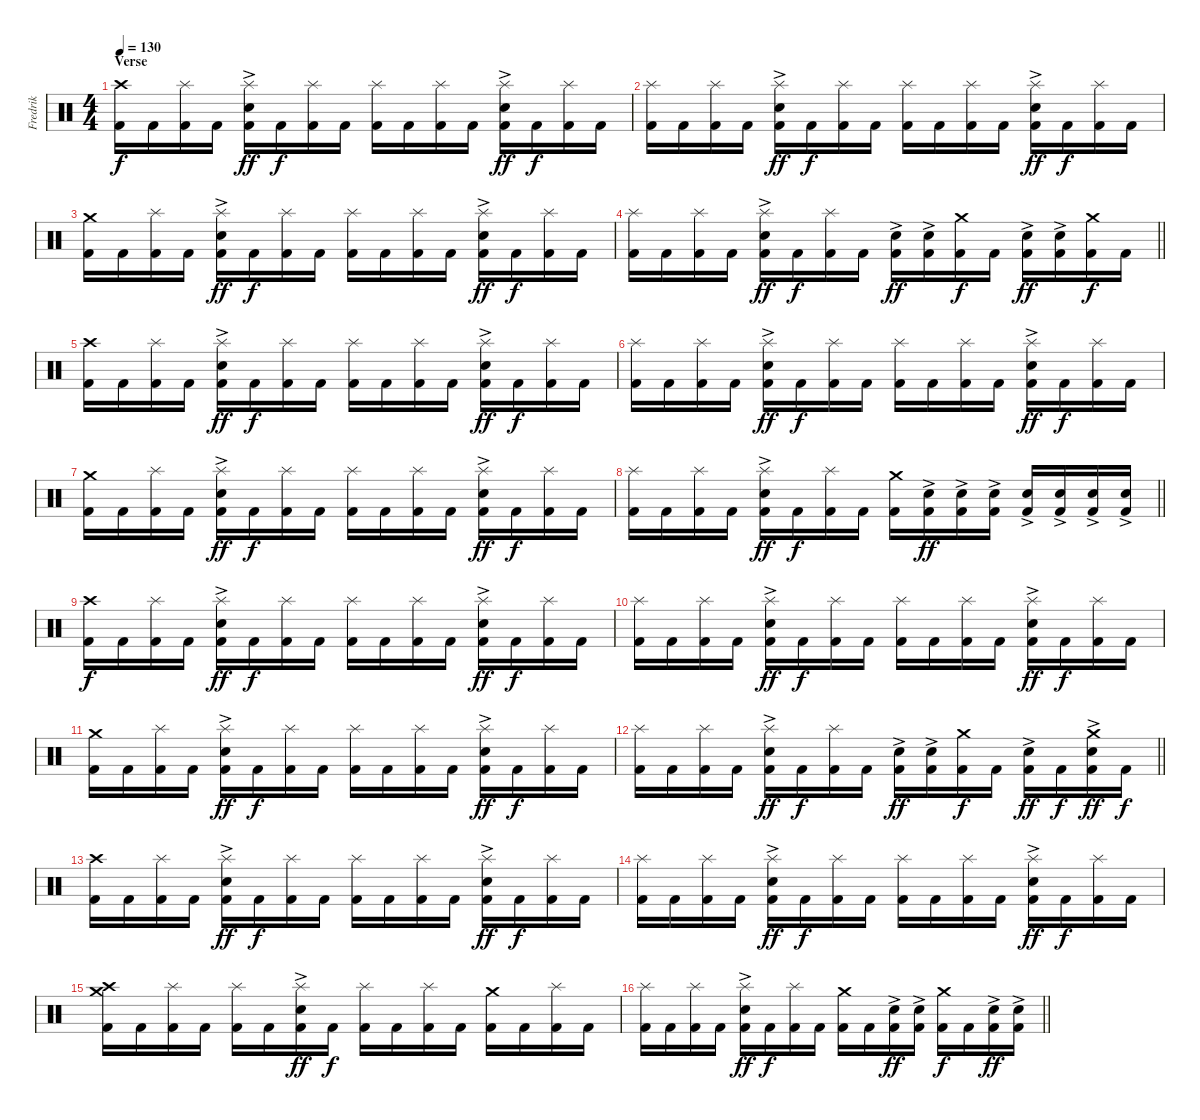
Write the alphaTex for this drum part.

\track ("Fredrik" "Fredrik") {instrument percussion}
\staff {score}
\articulation defaults
\ts (4 4)
\section ("" "Verse")
\tempo 130
\clef neutral
\ks c
("Kick (hit) 2" "Crash high (hit)").16{dy f} "Kick (hit) 2".16 ("Kick (hit) 2" "Splash (hit)").16 "Kick (hit) 2".16 ("Kick (hit) 2" "Snare (hit) 2"{ac} "Splash (hit)").16{dy ff} "Kick (hit) 2".16{dy f} ("Kick (hit) 2" "Splash (hit)").16 "Kick (hit) 2".16 ("Kick (hit) 2" "Splash (hit)").16 "Kick (hit) 2".16 ("Kick (hit) 2" "Splash (hit)").16 "Kick (hit) 2".16 ("Kick (hit) 2" "Snare (hit) 2"{ac} "Splash (hit)").16{dy ff} "Kick (hit) 2".16{dy f} ("Kick (hit) 2" "Splash (hit)").16 "Kick (hit) 2".16 |
("Kick (hit) 2" "Splash (hit)").16 "Kick (hit) 2".16 ("Kick (hit) 2" "Splash (hit)").16 "Kick (hit) 2".16 ("Kick (hit) 2" "Snare (hit) 2"{ac} "Splash (hit)").16{dy ff} "Kick (hit) 2".16{dy f} ("Kick (hit) 2" "Splash (hit)").16 "Kick (hit) 2".16 ("Kick (hit) 2" "Splash (hit)").16 "Kick (hit) 2".16 ("Kick (hit) 2" "Splash (hit)").16 "Kick (hit) 2".16 ("Kick (hit) 2" "Snare (hit) 2"{ac} "Splash (hit)").16{dy ff} "Kick (hit) 2".16{dy f} ("Kick (hit) 2" "Splash (hit)").16 "Kick (hit) 2".16 |
("Kick (hit) 2" "Crash medium (hit)").16 "Kick (hit) 2".16 ("Kick (hit) 2" "Splash (hit)").16 "Kick (hit) 2".16 ("Kick (hit) 2" "Snare (hit) 2"{ac} "Splash (hit)").16{dy ff} "Kick (hit) 2".16{dy f} ("Kick (hit) 2" "Splash (hit)").16 "Kick (hit) 2".16 ("Kick (hit) 2" "Splash (hit)").16 "Kick (hit) 2".16 ("Kick (hit) 2" "Splash (hit)").16 "Kick (hit) 2".16 ("Kick (hit) 2" "Snare (hit) 2"{ac} "Splash (hit)").16{dy ff} "Kick (hit) 2".16{dy f} ("Kick (hit) 2" "Splash (hit)").16 "Kick (hit) 2".16 |
\barLineRight lightlight
("Kick (hit) 2" "Splash (hit)").16 "Kick (hit) 2".16 ("Kick (hit) 2" "Splash (hit)").16 "Kick (hit) 2".16 ("Kick (hit) 2" "Snare (hit) 2"{ac} "Splash (hit)").16{dy ff} "Kick (hit) 2".16{dy f} ("Kick (hit) 2" "Splash (hit)").16 "Kick (hit) 2".16 ("Kick (hit) 2" "Snare (hit) 2"{ac}).16{dy ff} ("Kick (hit) 2" "Snare (hit) 2"{ac}).16 ("Kick (hit) 2" "Crash medium (hit)").16{dy f} "Kick (hit) 2".16 ("Kick (hit) 2" "Snare (hit) 2"{ac}).16{dy ff} ("Kick (hit) 2" "Snare (hit) 2"{ac}).16 ("Kick (hit) 2" "Crash medium (hit)").16{dy f} "Kick (hit) 2".16 |
\section ("" "")
("Kick (hit) 2" "Crash high (hit)").16 "Kick (hit) 2".16 ("Kick (hit) 2" "Splash (hit)").16 "Kick (hit) 2".16 ("Kick (hit) 2" "Snare (hit) 2"{ac} "Splash (hit)").16{dy ff} "Kick (hit) 2".16{dy f} ("Kick (hit) 2" "Splash (hit)").16 "Kick (hit) 2".16 ("Kick (hit) 2" "Splash (hit)").16 "Kick (hit) 2".16 ("Kick (hit) 2" "Splash (hit)").16 "Kick (hit) 2".16 ("Kick (hit) 2" "Snare (hit) 2"{ac} "Splash (hit)").16{dy ff} "Kick (hit) 2".16{dy f} ("Kick (hit) 2" "Splash (hit)").16 "Kick (hit) 2".16 |
("Kick (hit) 2" "Splash (hit)").16 "Kick (hit) 2".16 ("Kick (hit) 2" "Splash (hit)").16 "Kick (hit) 2".16 ("Kick (hit) 2" "Snare (hit) 2"{ac} "Splash (hit)").16{dy ff} "Kick (hit) 2".16{dy f} ("Kick (hit) 2" "Splash (hit)").16 "Kick (hit) 2".16 ("Kick (hit) 2" "Splash (hit)").16 "Kick (hit) 2".16 ("Kick (hit) 2" "Splash (hit)").16 "Kick (hit) 2".16 ("Kick (hit) 2" "Snare (hit) 2"{ac} "Splash (hit)").16{dy ff} "Kick (hit) 2".16{dy f} ("Kick (hit) 2" "Splash (hit)").16 "Kick (hit) 2".16 |
("Kick (hit) 2" "Crash medium (hit)").16 "Kick (hit) 2".16 ("Kick (hit) 2" "Splash (hit)").16 "Kick (hit) 2".16 ("Kick (hit) 2" "Snare (hit) 2"{ac} "Splash (hit)").16{dy ff} "Kick (hit) 2".16{dy f} ("Kick (hit) 2" "Splash (hit)").16 "Kick (hit) 2".16 ("Kick (hit) 2" "Splash (hit)").16 "Kick (hit) 2".16 ("Kick (hit) 2" "Splash (hit)").16 "Kick (hit) 2".16 ("Kick (hit) 2" "Snare (hit) 2"{ac} "Splash (hit)").16{dy ff} "Kick (hit) 2".16{dy f} ("Kick (hit) 2" "Splash (hit)").16 "Kick (hit) 2".16 |
\barLineRight lightlight
("Kick (hit) 2" "Splash (hit)").16 "Kick (hit) 2".16 ("Kick (hit) 2" "Splash (hit)").16 "Kick (hit) 2".16 ("Kick (hit) 2" "Snare (hit) 2"{ac} "Splash (hit)").16{dy ff} "Kick (hit) 2".16{dy f} ("Kick (hit) 2" "Splash (hit)").16 "Kick (hit) 2".16 ("Kick (hit) 2" "Crash medium (hit)").16 ("Kick (hit) 2" "Snare (hit) 2"{ac}).16{dy ff} ("Kick (hit) 2" "Snare (hit) 2"{ac}).16 ("Kick (hit) 2" "Snare (hit) 2"{ac}).16 ("Kick (hit) 2" "Snare (hit) 2"{ac}).16 ("Kick (hit) 2" "Snare (hit) 2"{ac}).16 ("Kick (hit) 2" "Snare (hit) 2"{ac}).16 ("Kick (hit) 2" "Snare (hit) 2"{ac}).16 |
\section ("" "")
("Kick (hit) 2" "Crash high (hit)").16{dy f} "Kick (hit) 2".16 ("Kick (hit) 2" "Splash (hit)").16 "Kick (hit) 2".16 ("Kick (hit) 2" "Snare (hit) 2"{ac} "Splash (hit)").16{dy ff} "Kick (hit) 2".16{dy f} ("Kick (hit) 2" "Splash (hit)").16 "Kick (hit) 2".16 ("Kick (hit) 2" "Splash (hit)").16 "Kick (hit) 2".16 ("Kick (hit) 2" "Splash (hit)").16 "Kick (hit) 2".16 ("Kick (hit) 2" "Snare (hit) 2"{ac} "Splash (hit)").16{dy ff} "Kick (hit) 2".16{dy f} ("Kick (hit) 2" "Splash (hit)").16 "Kick (hit) 2".16 |
("Kick (hit) 2" "Splash (hit)").16 "Kick (hit) 2".16 ("Kick (hit) 2" "Splash (hit)").16 "Kick (hit) 2".16 ("Kick (hit) 2" "Snare (hit) 2"{ac} "Splash (hit)").16{dy ff} "Kick (hit) 2".16{dy f} ("Kick (hit) 2" "Splash (hit)").16 "Kick (hit) 2".16 ("Kick (hit) 2" "Splash (hit)").16 "Kick (hit) 2".16 ("Kick (hit) 2" "Splash (hit)").16 "Kick (hit) 2".16 ("Kick (hit) 2" "Snare (hit) 2"{ac} "Splash (hit)").16{dy ff} "Kick (hit) 2".16{dy f} ("Kick (hit) 2" "Splash (hit)").16 "Kick (hit) 2".16 |
("Kick (hit) 2" "Crash medium (hit)").16 "Kick (hit) 2".16 ("Kick (hit) 2" "Splash (hit)").16 "Kick (hit) 2".16 ("Kick (hit) 2" "Snare (hit) 2"{ac} "Splash (hit)").16{dy ff} "Kick (hit) 2".16{dy f} ("Kick (hit) 2" "Splash (hit)").16 "Kick (hit) 2".16 ("Kick (hit) 2" "Splash (hit)").16 "Kick (hit) 2".16 ("Kick (hit) 2" "Splash (hit)").16 "Kick (hit) 2".16 ("Kick (hit) 2" "Snare (hit) 2"{ac} "Splash (hit)").16{dy ff} "Kick (hit) 2".16{dy f} ("Kick (hit) 2" "Splash (hit)").16 "Kick (hit) 2".16 |
\barLineRight lightlight
("Kick (hit) 2" "Splash (hit)").16 "Kick (hit) 2".16 ("Kick (hit) 2" "Splash (hit)").16 "Kick (hit) 2".16 ("Kick (hit) 2" "Snare (hit) 2"{ac} "Splash (hit)").16{dy ff} "Kick (hit) 2".16{dy f} ("Kick (hit) 2" "Splash (hit)").16 "Kick (hit) 2".16 ("Kick (hit) 2" "Snare (hit) 2"{ac}).16{dy ff} ("Kick (hit) 2" "Snare (hit) 2"{ac}).16 ("Kick (hit) 2" "Crash medium (hit)").16{dy f} "Kick (hit) 2".16 ("Kick (hit) 2" "Snare (hit) 2"{ac}).16{dy ff} "Kick (hit) 2".16{dy f} ("Kick (hit) 2" "Snare (hit) 2"{ac} "Crash medium (hit)").16{dy ff} "Kick (hit) 2".16{dy f} |
\section ("" "")
("Kick (hit) 2" "Crash high (hit)").16 "Kick (hit) 2".16 ("Kick (hit) 2" "Splash (hit)").16 "Kick (hit) 2".16 ("Kick (hit) 2" "Snare (hit) 2"{ac} "Splash (hit)").16{dy ff} "Kick (hit) 2".16{dy f} ("Kick (hit) 2" "Splash (hit)").16 "Kick (hit) 2".16 ("Kick (hit) 2" "Splash (hit)").16 "Kick (hit) 2".16 ("Kick (hit) 2" "Splash (hit)").16 "Kick (hit) 2".16 ("Kick (hit) 2" "Snare (hit) 2"{ac} "Splash (hit)").16{dy ff} "Kick (hit) 2".16{dy f} ("Kick (hit) 2" "Splash (hit)").16 "Kick (hit) 2".16 |
("Kick (hit) 2" "Splash (hit)").16 "Kick (hit) 2".16 ("Kick (hit) 2" "Splash (hit)").16 "Kick (hit) 2".16 ("Kick (hit) 2" "Snare (hit) 2"{ac} "Splash (hit)").16{dy ff} "Kick (hit) 2".16{dy f} ("Kick (hit) 2" "Splash (hit)").16 "Kick (hit) 2".16 ("Kick (hit) 2" "Splash (hit)").16 "Kick (hit) 2".16 ("Kick (hit) 2" "Splash (hit)").16 "Kick (hit) 2".16 ("Kick (hit) 2" "Snare (hit) 2"{ac} "Splash (hit)").16{dy ff} "Kick (hit) 2".16{dy f} ("Kick (hit) 2" "Splash (hit)").16 "Kick (hit) 2".16 |
("Kick (hit) 2" "Crash medium (hit)" "Crash high (hit)").16 "Kick (hit) 2".16 ("Kick (hit) 2" "Splash (hit)").16 "Kick (hit) 2".16 ("Kick (hit) 2" "Splash (hit)").16 "Kick (hit) 2".16 ("Kick (hit) 2" "Snare (hit) 2"{ac} "Splash (hit)").16{dy ff} "Kick (hit) 2".16{dy f} ("Kick (hit) 2" "Splash (hit)").16 "Kick (hit) 2".16 ("Kick (hit) 2" "Splash (hit)").16 "Kick (hit) 2".16 ("Kick (hit) 2" "Crash medium (hit)").16 "Kick (hit) 2".16 ("Kick (hit) 2" "Splash (hit)").16 "Kick (hit) 2".16 |
\barLineRight lightlight
("Kick (hit) 2" "Splash (hit)").16 "Kick (hit) 2".16 ("Kick (hit) 2" "Splash (hit)").16 "Kick (hit) 2".16 ("Kick (hit) 2" "Snare (hit) 2"{ac} "Splash (hit)").16{dy ff} "Kick (hit) 2".16{dy f} ("Kick (hit) 2" "Splash (hit)").16 "Kick (hit) 2".16 ("Kick (hit) 2" "Crash medium (hit)").16 "Kick (hit) 2".16 ("Kick (hit) 2" "Snare (hit) 2"{ac}).16{dy ff} ("Kick (hit) 2" "Snare (hit) 2"{ac}).16 ("Kick (hit) 2" "Crash medium (hit)").16{dy f} "Kick (hit) 2".16 ("Kick (hit) 2" "Snare (hit) 2"{ac}).16{dy ff} ("Kick (hit) 2" "Snare (hit) 2"{ac}).16
